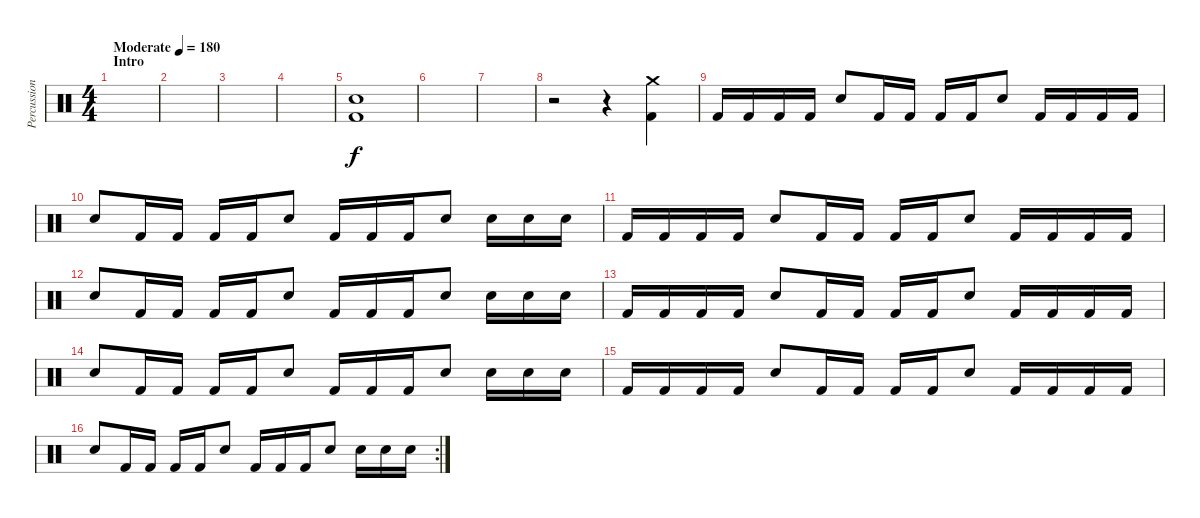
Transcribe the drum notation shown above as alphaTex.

\track ("Percussion" "Percussion") {instrument percussion}
\staff {score}
\articulation defaults
\ts (4 4)
\section ("" "Intro")
\tempo (180 "Moderate")
\clef neutral
\ks c
|
|
|
|
("Electric Snare (hit)" "Kick (hit) 2").1 |
|
|
r.2 r.4 ("Crash medium (hit)" "Kick (hit) 2").4 |
"Kick (hit) 2".16 "Kick (hit) 2".16 "Kick (hit) 2".16 "Kick (hit) 2".16 "Electric Snare (hit)".8 "Kick (hit) 2".16 "Kick (hit) 2".16 "Kick (hit) 2".16 "Kick (hit) 2".16 "Electric Snare (hit)".8 "Kick (hit) 2".16 "Kick (hit) 2".16 "Kick (hit) 2".16 "Kick (hit) 2".16 |
"Electric Snare (hit)".8 "Kick (hit) 2".16 "Kick (hit) 2".16 "Kick (hit) 2".16 "Kick (hit) 2".16 "Electric Snare (hit)".8 "Kick (hit) 2".16 "Kick (hit) 2".16 "Kick (hit) 2".16 "Electric Snare (hit)".8 "Electric Snare (hit)".16 "Electric Snare (hit)".16 "Electric Snare (hit)".16 |
"Kick (hit) 2".16 "Kick (hit) 2".16 "Kick (hit) 2".16 "Kick (hit) 2".16 "Electric Snare (hit)".8 "Kick (hit) 2".16 "Kick (hit) 2".16 "Kick (hit) 2".16 "Kick (hit) 2".16 "Electric Snare (hit)".8 "Kick (hit) 2".16 "Kick (hit) 2".16 "Kick (hit) 2".16 "Kick (hit) 2".16 |
"Electric Snare (hit)".8 "Kick (hit) 2".16 "Kick (hit) 2".16 "Kick (hit) 2".16 "Kick (hit) 2".16 "Electric Snare (hit)".8 "Kick (hit) 2".16 "Kick (hit) 2".16 "Kick (hit) 2".16 "Electric Snare (hit)".8 "Electric Snare (hit)".16 "Electric Snare (hit)".16 "Electric Snare (hit)".16 |
"Kick (hit) 2".16 "Kick (hit) 2".16 "Kick (hit) 2".16 "Kick (hit) 2".16 "Electric Snare (hit)".8 "Kick (hit) 2".16 "Kick (hit) 2".16 "Kick (hit) 2".16 "Kick (hit) 2".16 "Electric Snare (hit)".8 "Kick (hit) 2".16 "Kick (hit) 2".16 "Kick (hit) 2".16 "Kick (hit) 2".16 |
"Electric Snare (hit)".8 "Kick (hit) 2".16 "Kick (hit) 2".16 "Kick (hit) 2".16 "Kick (hit) 2".16 "Electric Snare (hit)".8 "Kick (hit) 2".16 "Kick (hit) 2".16 "Kick (hit) 2".16 "Electric Snare (hit)".8 "Electric Snare (hit)".16 "Electric Snare (hit)".16 "Electric Snare (hit)".16 |
"Kick (hit) 2".16 "Kick (hit) 2".16 "Kick (hit) 2".16 "Kick (hit) 2".16 "Electric Snare (hit)".8 "Kick (hit) 2".16 "Kick (hit) 2".16 "Kick (hit) 2".16 "Kick (hit) 2".16 "Electric Snare (hit)".8 "Kick (hit) 2".16 "Kick (hit) 2".16 "Kick (hit) 2".16 "Kick (hit) 2".16 |
\rc 2 "Electric Snare (hit)".8 "Kick (hit) 2".16 "Kick (hit) 2".16 "Kick (hit) 2".16 "Kick (hit) 2".16 "Electric Snare (hit)".8 "Kick (hit) 2".16 "Kick (hit) 2".16 "Kick (hit) 2".16 "Electric Snare (hit)".8 "Electric Snare (hit)".16 "Electric Snare (hit)".16 "Electric Snare (hit)".16
